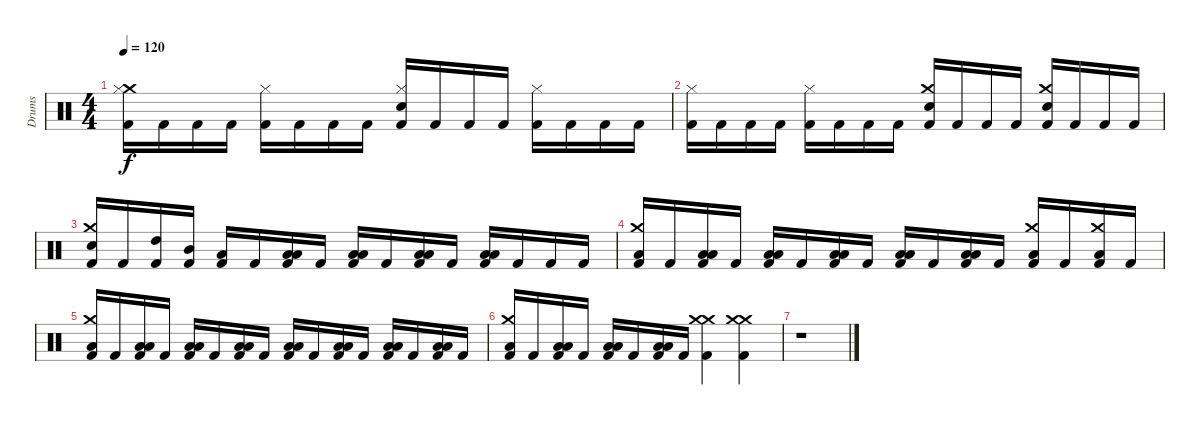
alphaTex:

\track ("Drums" "Drums") {instrument percussion}
\staff {score}
\articulation defaults
\ts (4 4)
\tempo 120
\clef neutral
\ks c
("Kick (hit) 2" "Crash medium (hit)" "Hi-Hat (closed)").16{dy f} "Kick (hit) 2".16 "Kick (hit) 2".16 "Kick (hit) 2".16 ("Kick (hit) 2" "Hi-Hat (closed)").16 "Kick (hit) 2".16 "Kick (hit) 2".16 "Kick (hit) 2".16 ("Kick (hit) 2" "Snare (hit) 2" "Hi-Hat (closed)").16 "Kick (hit) 2".16 "Kick (hit) 2".16 "Kick (hit) 2".16 ("Kick (hit) 2" "Hi-Hat (closed)").16 "Kick (hit) 2".16 "Kick (hit) 2".16 "Kick (hit) 2".16 |
("Kick (hit) 2" "Hi-Hat (closed)").16 "Kick (hit) 2".16 "Kick (hit) 2".16 "Kick (hit) 2".16 ("Kick (hit) 2" "Hi-Hat (closed)").16 "Kick (hit) 2".16 "Kick (hit) 2".16 "Kick (hit) 2".16 ("Kick (hit) 2" "Snare (hit) 2" "Crash medium (hit)").16 "Kick (hit) 2".16 "Kick (hit) 2".16 "Kick (hit) 2".16 ("Kick (hit) 2" "Snare (hit) 2" "Crash medium (hit)").16 "Kick (hit) 2".16 "Kick (hit) 2".16 "Kick (hit) 2".16 |
("Kick (hit) 2" "Snare (hit) 2" "Crash medium (hit)").16 "Kick (hit) 2".16 ("Kick (hit) 2" "High Tom (hit)").16 ("Kick (hit) 2" "Mid Tom (hit)").16 ("Kick (hit) 2" "Low Tom (hit)").16 "Kick (hit) 2".16 ("Kick (hit) 2" "Low Tom (hit)" "Low Tom (hit)").16 "Kick (hit) 2".16 ("Kick (hit) 2" "Low Tom (hit)" "Low Tom (hit)").16 "Kick (hit) 2".16 ("Kick (hit) 2" "Low Tom (hit)" "Low Tom (hit)").16 "Kick (hit) 2".16 ("Kick (hit) 2" "Low Tom (hit)" "Low Tom (hit)").16 "Kick (hit) 2".16 "Kick (hit) 2".16 "Kick (hit) 2".16 |
("Kick (hit) 2" "Low Tom (hit)" "Crash medium (hit)").16 "Kick (hit) 2".16 ("Kick (hit) 2" "Low Tom (hit)" "Low Tom (hit)").16 "Kick (hit) 2".16 ("Kick (hit) 2" "Low Tom (hit)" "Low Tom (hit)").16 "Kick (hit) 2".16 ("Kick (hit) 2" "Low Tom (hit)" "Low Tom (hit)").16 "Kick (hit) 2".16 ("Kick (hit) 2" "Low Tom (hit)" "Low Tom (hit)").16 "Kick (hit) 2".16 ("Kick (hit) 2" "Low Tom (hit)" "Low Tom (hit)").16 "Kick (hit) 2".16 ("Kick (hit) 2" "Low Tom (hit)" "Crash medium (hit)").16 "Kick (hit) 2".16 ("Kick (hit) 2" "Low Tom (hit)" "Crash medium (hit)").16 "Kick (hit) 2".16 |
("Kick (hit) 2" "Low Tom (hit)" "Crash medium (hit)").16 "Kick (hit) 2".16 ("Kick (hit) 2" "Low Tom (hit)" "Low Tom (hit)").16 "Kick (hit) 2".16 ("Kick (hit) 2" "Low Tom (hit)" "Low Tom (hit)").16 "Kick (hit) 2".16 ("Kick (hit) 2" "Low Tom (hit)" "Low Tom (hit)").16 "Kick (hit) 2".16 ("Kick (hit) 2" "Low Tom (hit)" "Low Tom (hit)").16 "Kick (hit) 2".16 ("Kick (hit) 2" "Low Tom (hit)" "Low Tom (hit)").16 "Kick (hit) 2".16 ("Kick (hit) 2" "Low Tom (hit)" "Low Tom (hit)").16 "Kick (hit) 2".16 ("Kick (hit) 2" "Low Tom (hit)" "Low Tom (hit)").16 "Kick (hit) 2".16 |
("Kick (hit) 2" "Low Tom (hit)" "Crash medium (hit)").16 "Kick (hit) 2".16 ("Kick (hit) 2" "Low Tom (hit)" "Low Tom (hit)").16 "Kick (hit) 2".16 ("Kick (hit) 2" "Low Tom (hit)" "Low Tom (hit)").16 "Kick (hit) 2".16 ("Kick (hit) 2" "Low Tom (hit)" "Low Tom (hit)").16 "Kick (hit) 2".16 ("Kick (hit) 2" "Crash medium (hit)" "Crash medium (hit)").4 ("Kick (hit) 2" "Crash medium (hit)" "Crash medium (hit)").4 |
r.1
